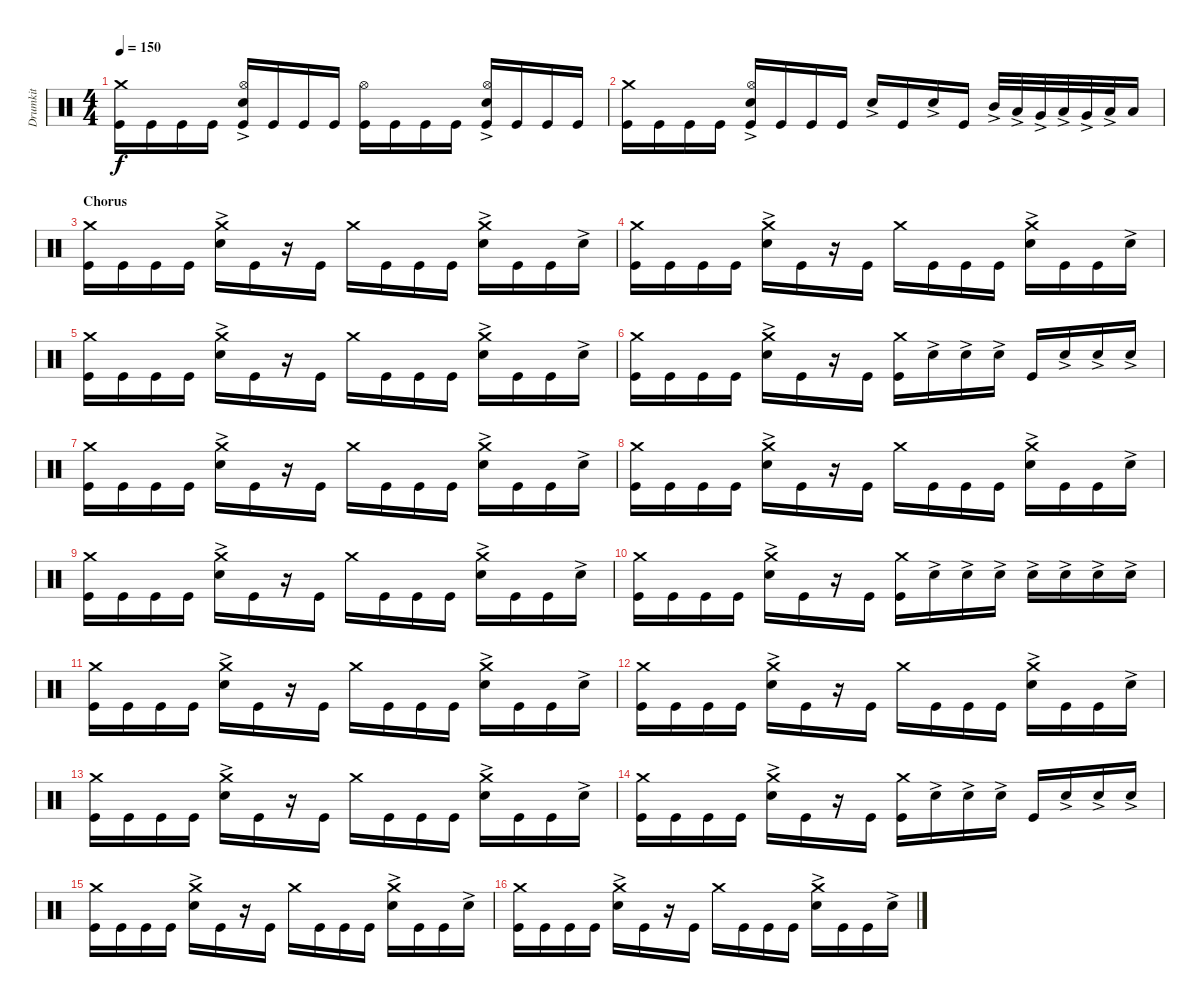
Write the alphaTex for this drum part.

\track ("Drumkit" "Drumkit") {instrument percussion}
\staff {score}
\articulation defaults
\ts (4 4)
\tempo 150
\clef neutral
\ks c
("Kick (hit)" "Crash medium (hit)").16{dy f} "Kick (hit)".16 "Kick (hit)".16 "Kick (hit)".16 ("Kick (hit)" "Hi-Hat (open)" "Snare (hit) 2"{ac}).16 "Kick (hit)".16 "Kick (hit)".16 "Kick (hit)".16 ("Kick (hit)" "Hi-Hat (open)").16 "Kick (hit)".16 "Kick (hit)".16 "Kick (hit)".16 ("Kick (hit)" "Hi-Hat (open)" "Snare (hit) 2"{ac}).16 "Kick (hit)".16 "Kick (hit)".16 "Kick (hit)".16 |
("Kick (hit)" "Crash medium (hit)").16 "Kick (hit)".16 "Kick (hit)".16 "Kick (hit)".16 ("Kick (hit)" "Hi-Hat (open)" "Snare (hit) 2"{ac}).16 "Kick (hit)".16 "Kick (hit)".16 "Kick (hit)".16 "Snare (hit) 2"{ac}.16 "Kick (hit)".16 "Snare (hit) 2"{ac}.16 "Kick (hit)".16 "Mid Tom (hit)"{ac}.32 "Low Tom (hit)"{ac}.32 "Very Low Tom (hit)"{ac}.32 "Low Tom (hit)"{ac}.32 "Very Low Tom (hit)"{ac}.32 "Low Floor Tom (hit)"{ac}.32 "Low Floor Tom (hit)".16 |
\section ("" "Chorus")
("Crash medium (hit)" "Kick (hit)").16 "Kick (hit)".16 "Kick (hit)".16 "Kick (hit)".16 ("Crash medium (hit)" "Snare (hit) 2"{ac}).16 "Kick (hit)".16 r.16 "Kick (hit)".16 "Crash medium (hit)".16 "Kick (hit)".16 "Kick (hit)".16 "Kick (hit)".16 ("Crash medium (hit)" "Snare (hit) 2"{ac}).16 "Kick (hit)".16 "Kick (hit)".16 "Snare (hit) 2"{ac}.16 |
("Crash medium (hit)" "Kick (hit)").16 "Kick (hit)".16 "Kick (hit)".16 "Kick (hit)".16 ("Crash medium (hit)" "Snare (hit) 2"{ac}).16 "Kick (hit)".16 r.16 "Kick (hit)".16 "Crash medium (hit)".16 "Kick (hit)".16 "Kick (hit)".16 "Kick (hit)".16 ("Crash medium (hit)" "Snare (hit) 2"{ac}).16 "Kick (hit)".16 "Kick (hit)".16 "Snare (hit) 2"{ac}.16 |
("Crash medium (hit)" "Kick (hit)").16 "Kick (hit)".16 "Kick (hit)".16 "Kick (hit)".16 ("Crash medium (hit)" "Snare (hit) 2"{ac}).16 "Kick (hit)".16 r.16 "Kick (hit)".16 "Crash medium (hit)".16 "Kick (hit)".16 "Kick (hit)".16 "Kick (hit)".16 ("Crash medium (hit)" "Snare (hit) 2"{ac}).16 "Kick (hit)".16 "Kick (hit)".16 "Snare (hit) 2"{ac}.16 |
("Crash medium (hit)" "Kick (hit)").16 "Kick (hit)".16 "Kick (hit)".16 "Kick (hit)".16 ("Crash medium (hit)" "Snare (hit) 2"{ac}).16 "Kick (hit)".16 r.16 "Kick (hit)".16 ("Kick (hit)" "Crash medium (hit)").16 "Snare (hit) 2"{ac}.16 "Snare (hit) 2"{ac}.16 "Snare (hit) 2"{ac}.16 "Kick (hit)".16 "Snare (hit) 2"{ac}.16 "Snare (hit) 2"{ac}.16 "Snare (hit) 2"{ac}.16 |
("Crash medium (hit)" "Kick (hit)").16 "Kick (hit)".16 "Kick (hit)".16 "Kick (hit)".16 ("Crash medium (hit)" "Snare (hit) 2"{ac}).16 "Kick (hit)".16 r.16 "Kick (hit)".16 "Crash medium (hit)".16 "Kick (hit)".16 "Kick (hit)".16 "Kick (hit)".16 ("Crash medium (hit)" "Snare (hit) 2"{ac}).16 "Kick (hit)".16 "Kick (hit)".16 "Snare (hit) 2"{ac}.16 |
("Crash medium (hit)" "Kick (hit)").16 "Kick (hit)".16 "Kick (hit)".16 "Kick (hit)".16 ("Crash medium (hit)" "Snare (hit) 2"{ac}).16 "Kick (hit)".16 r.16 "Kick (hit)".16 "Crash medium (hit)".16 "Kick (hit)".16 "Kick (hit)".16 "Kick (hit)".16 ("Crash medium (hit)" "Snare (hit) 2"{ac}).16 "Kick (hit)".16 "Kick (hit)".16 "Snare (hit) 2"{ac}.16 |
("Crash medium (hit)" "Kick (hit)").16 "Kick (hit)".16 "Kick (hit)".16 "Kick (hit)".16 ("Crash medium (hit)" "Snare (hit) 2"{ac}).16 "Kick (hit)".16 r.16 "Kick (hit)".16 "Crash medium (hit)".16 "Kick (hit)".16 "Kick (hit)".16 "Kick (hit)".16 ("Crash medium (hit)" "Snare (hit) 2"{ac}).16 "Kick (hit)".16 "Kick (hit)".16 "Snare (hit) 2"{ac}.16 |
("Crash medium (hit)" "Kick (hit)").16 "Kick (hit)".16 "Kick (hit)".16 "Kick (hit)".16 ("Crash medium (hit)" "Snare (hit) 2"{ac}).16 "Kick (hit)".16 r.16 "Kick (hit)".16 ("Kick (hit)" "Crash medium (hit)").16 "Snare (hit) 2"{ac}.16 "Snare (hit) 2"{ac}.16 "Snare (hit) 2"{ac}.16 "Snare (hit) 2"{ac}.16 "Snare (hit) 2"{ac}.16 "Snare (hit) 2"{ac}.16 "Snare (hit) 2"{ac}.16 |
("Crash medium (hit)" "Kick (hit)").16 "Kick (hit)".16 "Kick (hit)".16 "Kick (hit)".16 ("Crash medium (hit)" "Snare (hit) 2"{ac}).16 "Kick (hit)".16 r.16 "Kick (hit)".16 "Crash medium (hit)".16 "Kick (hit)".16 "Kick (hit)".16 "Kick (hit)".16 ("Crash medium (hit)" "Snare (hit) 2"{ac}).16 "Kick (hit)".16 "Kick (hit)".16 "Snare (hit) 2"{ac}.16 |
("Crash medium (hit)" "Kick (hit)").16 "Kick (hit)".16 "Kick (hit)".16 "Kick (hit)".16 ("Crash medium (hit)" "Snare (hit) 2"{ac}).16 "Kick (hit)".16 r.16 "Kick (hit)".16 "Crash medium (hit)".16 "Kick (hit)".16 "Kick (hit)".16 "Kick (hit)".16 ("Crash medium (hit)" "Snare (hit) 2"{ac}).16 "Kick (hit)".16 "Kick (hit)".16 "Snare (hit) 2"{ac}.16 |
("Crash medium (hit)" "Kick (hit)").16 "Kick (hit)".16 "Kick (hit)".16 "Kick (hit)".16 ("Crash medium (hit)" "Snare (hit) 2"{ac}).16 "Kick (hit)".16 r.16 "Kick (hit)".16 "Crash medium (hit)".16 "Kick (hit)".16 "Kick (hit)".16 "Kick (hit)".16 ("Crash medium (hit)" "Snare (hit) 2"{ac}).16 "Kick (hit)".16 "Kick (hit)".16 "Snare (hit) 2"{ac}.16 |
("Crash medium (hit)" "Kick (hit)").16 "Kick (hit)".16 "Kick (hit)".16 "Kick (hit)".16 ("Crash medium (hit)" "Snare (hit) 2"{ac}).16 "Kick (hit)".16 r.16 "Kick (hit)".16 ("Kick (hit)" "Crash medium (hit)").16 "Snare (hit) 2"{ac}.16 "Snare (hit) 2"{ac}.16 "Snare (hit) 2"{ac}.16 "Kick (hit)".16 "Snare (hit) 2"{ac}.16 "Snare (hit) 2"{ac}.16 "Snare (hit) 2"{ac}.16 |
("Crash medium (hit)" "Kick (hit)").16 "Kick (hit)".16 "Kick (hit)".16 "Kick (hit)".16 ("Crash medium (hit)" "Snare (hit) 2"{ac}).16 "Kick (hit)".16 r.16 "Kick (hit)".16 "Crash medium (hit)".16 "Kick (hit)".16 "Kick (hit)".16 "Kick (hit)".16 ("Crash medium (hit)" "Snare (hit) 2"{ac}).16 "Kick (hit)".16 "Kick (hit)".16 "Snare (hit) 2"{ac}.16 |
("Crash medium (hit)" "Kick (hit)").16 "Kick (hit)".16 "Kick (hit)".16 "Kick (hit)".16 ("Crash medium (hit)" "Snare (hit) 2"{ac}).16 "Kick (hit)".16 r.16 "Kick (hit)".16 "Crash medium (hit)".16 "Kick (hit)".16 "Kick (hit)".16 "Kick (hit)".16 ("Crash medium (hit)" "Snare (hit) 2"{ac}).16 "Kick (hit)".16 "Kick (hit)".16 "Snare (hit) 2"{ac}.16
